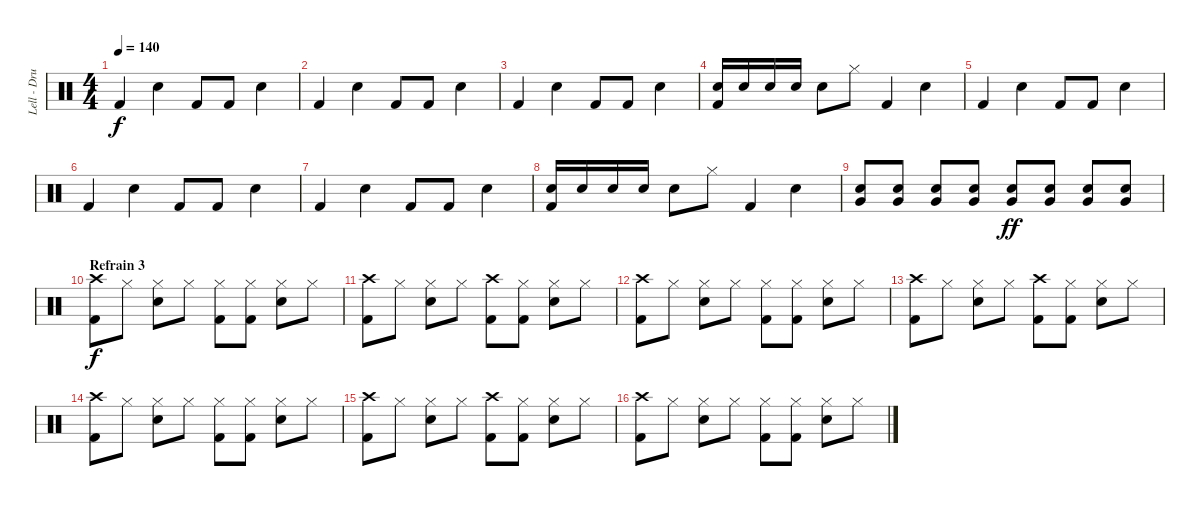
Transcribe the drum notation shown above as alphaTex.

\track ("Lell - Drums" "Lell - Dru") {instrument percussion}
\staff {score}
\articulation defaults
\ts (4 4)
\tempo 140
\clef neutral
\ks c "Kick (hit) 2".4{dy f} "Snare (hit) 2".4 "Kick (hit) 2".8 "Kick (hit) 2".8 "Snare (hit) 2".4
|
"Kick (hit) 2".4 "Snare (hit) 2".4 "Kick (hit) 2".8 "Kick (hit) 2".8 "Snare (hit) 2".4 |
"Kick (hit) 2".4 "Snare (hit) 2".4 "Kick (hit) 2".8 "Kick (hit) 2".8 "Snare (hit) 2".4 |
("Snare (hit) 2" "Kick (hit) 2").16 "Snare (hit) 2".16 "Snare (hit) 2".16 "Snare (hit) 2".16 "Snare (hit) 2".8 "Hi-Hat (closed)".8 "Kick (hit) 2".4 "Snare (hit) 2".4 |
"Kick (hit) 2".4 "Snare (hit) 2".4 "Kick (hit) 2".8 "Kick (hit) 2".8 "Snare (hit) 2".4 |
"Kick (hit) 2".4 "Snare (hit) 2".4 "Kick (hit) 2".8 "Kick (hit) 2".8 "Snare (hit) 2".4 |
"Kick (hit) 2".4 "Snare (hit) 2".4 "Kick (hit) 2".8 "Kick (hit) 2".8 "Snare (hit) 2".4 |
("Snare (hit) 2" "Kick (hit) 2").16 "Snare (hit) 2".16 "Snare (hit) 2".16 "Snare (hit) 2".16 "Snare (hit) 2".8 "Hi-Hat (closed)".8 "Kick (hit) 2".4 "Snare (hit) 2".4 |
("Very Low Tom (hit)" "Snare (hit) 2").8 ("Very Low Tom (hit)" "Snare (hit) 2").8 ("Very Low Tom (hit)" "Snare (hit) 2").8 ("Very Low Tom (hit)" "Snare (hit) 2").8 ("Very Low Tom (hit)" "Snare (hit) 2").8{dy ff} ("Very Low Tom (hit)" "Snare (hit) 2").8 ("Very Low Tom (hit)" "Snare (hit) 2").8 ("Very Low Tom (hit)" "Snare (hit) 2").8 |
\section ("" "Refrain 3")
("Crash high (hit)" "Kick (hit) 2").8{dy f} "Hi-Hat (closed)".8 ("Hi-Hat (closed)" "Snare (hit) 2").8 "Hi-Hat (closed)".8 ("Hi-Hat (closed)" "Kick (hit) 2").8 ("Hi-Hat (closed)" "Kick (hit) 2").8 ("Hi-Hat (closed)" "Snare (hit) 2").8 "Hi-Hat (closed)".8 |
("Crash high (hit)" "Kick (hit) 2").8 "Hi-Hat (closed)".8 ("Hi-Hat (closed)" "Snare (hit) 2").8 "Hi-Hat (closed)".8 ("Crash high (hit)" "Kick (hit) 2").8 ("Hi-Hat (closed)" "Kick (hit) 2").8 ("Hi-Hat (closed)" "Snare (hit) 2").8 "Hi-Hat (closed)".8 |
("Crash high (hit)" "Kick (hit) 2").8 "Hi-Hat (closed)".8 ("Hi-Hat (closed)" "Snare (hit) 2").8 "Hi-Hat (closed)".8 ("Hi-Hat (closed)" "Kick (hit) 2").8 ("Hi-Hat (closed)" "Kick (hit) 2").8 ("Hi-Hat (closed)" "Snare (hit) 2").8 "Hi-Hat (closed)".8 |
("Crash high (hit)" "Kick (hit) 2").8 "Hi-Hat (closed)".8 ("Hi-Hat (closed)" "Snare (hit) 2").8 "Hi-Hat (closed)".8 ("Crash high (hit)" "Kick (hit) 2").8 ("Hi-Hat (closed)" "Kick (hit) 2").8 ("Hi-Hat (closed)" "Snare (hit) 2").8 "Hi-Hat (closed)".8 |
("Crash high (hit)" "Kick (hit) 2").8 "Hi-Hat (closed)".8 ("Hi-Hat (closed)" "Snare (hit) 2").8 "Hi-Hat (closed)".8 ("Hi-Hat (closed)" "Kick (hit) 2").8 ("Hi-Hat (closed)" "Kick (hit) 2").8 ("Hi-Hat (closed)" "Snare (hit) 2").8 "Hi-Hat (closed)".8 |
("Crash high (hit)" "Kick (hit) 2").8 "Hi-Hat (closed)".8 ("Hi-Hat (closed)" "Snare (hit) 2").8 "Hi-Hat (closed)".8 ("Crash high (hit)" "Kick (hit) 2").8 ("Hi-Hat (closed)" "Kick (hit) 2").8 ("Hi-Hat (closed)" "Snare (hit) 2").8 "Hi-Hat (closed)".8 |
("Crash high (hit)" "Kick (hit) 2").8 "Hi-Hat (closed)".8 ("Hi-Hat (closed)" "Snare (hit) 2").8 "Hi-Hat (closed)".8 ("Hi-Hat (closed)" "Kick (hit) 2").8 ("Hi-Hat (closed)" "Kick (hit) 2").8 ("Hi-Hat (closed)" "Snare (hit) 2").8 "Hi-Hat (closed)".8
